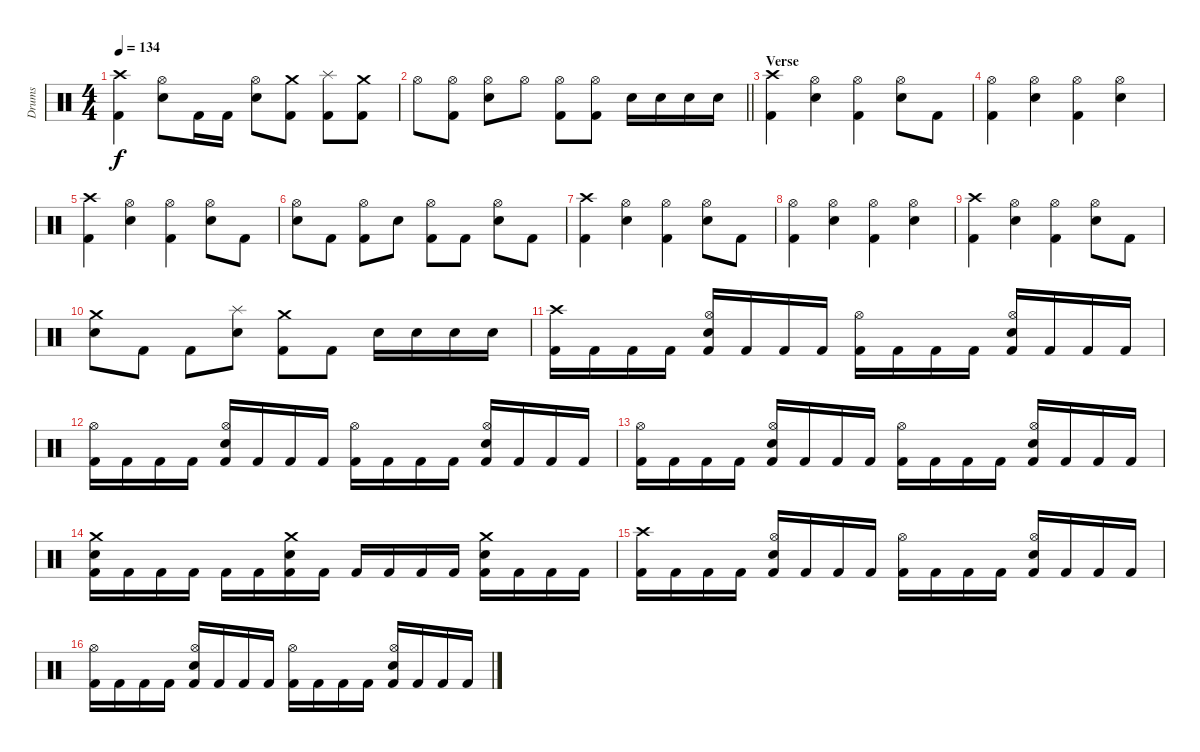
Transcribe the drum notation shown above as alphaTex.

\track ("Drums" "Drums") {instrument percussion}
\staff {score}
\articulation defaults
\ts (4 4)
\tempo 134
\clef neutral
\ks c
("Crash high (hit)" "Kick (hit) 2").4{dy f} ("Hi-Hat (open)" "Electric Snare (hit)").8 "Kick (hit) 2".16 "Kick (hit) 2".16 ("Hi-Hat (open)" "Electric Snare (hit)").8 ("Crash medium (hit)" "Kick (hit) 2").8 ("Splash (hit)" "Kick (hit) 2").8 ("Crash medium (hit)" "Kick (hit) 2").8 |
\barLineRight lightlight "Hi-Hat (open)".8
("Hi-Hat (open)" "Kick (hit) 2").8 ("Hi-Hat (open)" "Electric Snare (hit)").8 "Hi-Hat (open)".8 ("Hi-Hat (open)" "Kick (hit) 2").8 ("Hi-Hat (open)" "Kick (hit) 2").8 "Electric Snare (hit)".16 "Electric Snare (hit)".16 "Electric Snare (hit)".16 "Electric Snare (hit)".16 |
\section ("" "Verse")
("Crash high (hit)" "Kick (hit) 2").4 ("Hi-Hat (open)" "Electric Snare (hit)").4 ("Hi-Hat (open)" "Kick (hit) 2").4 ("Hi-Hat (open)" "Electric Snare (hit)").8 "Kick (hit) 2".8 |
("Hi-Hat (open)" "Kick (hit) 2").4 ("Hi-Hat (open)" "Electric Snare (hit)").4 ("Hi-Hat (open)" "Kick (hit) 2").4 ("Hi-Hat (open)" "Electric Snare (hit)").4 |
("Crash high (hit)" "Kick (hit) 2").4 ("Hi-Hat (open)" "Electric Snare (hit)").4 ("Hi-Hat (open)" "Kick (hit) 2").4 ("Hi-Hat (open)" "Electric Snare (hit)").8 "Kick (hit) 2".8 |
("Hi-Hat (open)" "Electric Snare (hit)").8 "Kick (hit) 2".8 ("Hi-Hat (open)" "Kick (hit) 2").8 "Electric Snare (hit)".8 ("Hi-Hat (open)" "Kick (hit) 2").8 "Kick (hit) 2".8 ("Hi-Hat (open)" "Electric Snare (hit)").8 "Kick (hit) 2".8 |
("Crash high (hit)" "Kick (hit) 2").4 ("Hi-Hat (open)" "Electric Snare (hit)").4 ("Hi-Hat (open)" "Kick (hit) 2").4 ("Hi-Hat (open)" "Electric Snare (hit)").8 "Kick (hit) 2".8 |
("Hi-Hat (open)" "Kick (hit) 2").4 ("Hi-Hat (open)" "Electric Snare (hit)").4 ("Hi-Hat (open)" "Kick (hit) 2").4 ("Hi-Hat (open)" "Electric Snare (hit)").4 |
("Crash high (hit)" "Kick (hit) 2").4 ("Hi-Hat (open)" "Electric Snare (hit)").4 ("Hi-Hat (open)" "Kick (hit) 2").4 ("Hi-Hat (open)" "Electric Snare (hit)").8 "Kick (hit) 2".8 |
("Crash medium (hit)" "Electric Snare (hit)").8 "Kick (hit) 2".8 "Kick (hit) 2".8 ("Splash (hit)" "Electric Snare (hit)").8 ("Crash medium (hit)" "Kick (hit) 2").8 "Kick (hit) 2".8 "Electric Snare (hit)".16 "Electric Snare (hit)".16 "Electric Snare (hit)".16 "Electric Snare (hit)".16 |
("Crash high (hit)" "Kick (hit) 2").16 "Kick (hit) 2".16 "Kick (hit) 2".16 "Kick (hit) 2".16 ("Hi-Hat (open)" "Electric Snare (hit)" "Kick (hit) 2").16 "Kick (hit) 2".16 "Kick (hit) 2".16 "Kick (hit) 2".16 ("Hi-Hat (open)" "Kick (hit) 2").16 "Kick (hit) 2".16 "Kick (hit) 2".16 "Kick (hit) 2".16 ("Hi-Hat (open)" "Electric Snare (hit)" "Kick (hit) 2").16 "Kick (hit) 2".16 "Kick (hit) 2".16 "Kick (hit) 2".16 |
("Hi-Hat (open)" "Kick (hit) 2").16 "Kick (hit) 2".16 "Kick (hit) 2".16 "Kick (hit) 2".16 ("Hi-Hat (open)" "Electric Snare (hit)" "Kick (hit) 2").16 "Kick (hit) 2".16 "Kick (hit) 2".16 "Kick (hit) 2".16 ("Hi-Hat (open)" "Kick (hit) 2").16 "Kick (hit) 2".16 "Kick (hit) 2".16 "Kick (hit) 2".16 ("Hi-Hat (open)" "Electric Snare (hit)" "Kick (hit) 2").16 "Kick (hit) 2".16 "Kick (hit) 2".16 "Kick (hit) 2".16 |
("Hi-Hat (open)" "Kick (hit) 2").16 "Kick (hit) 2".16 "Kick (hit) 2".16 "Kick (hit) 2".16 ("Hi-Hat (open)" "Electric Snare (hit)" "Kick (hit) 2").16 "Kick (hit) 2".16 "Kick (hit) 2".16 "Kick (hit) 2".16 ("Hi-Hat (open)" "Kick (hit) 2").16 "Kick (hit) 2".16 "Kick (hit) 2".16 "Kick (hit) 2".16 ("Hi-Hat (open)" "Electric Snare (hit)" "Kick (hit) 2").16 "Kick (hit) 2".16 "Kick (hit) 2".16 "Kick (hit) 2".16 |
("Crash medium (hit)" "Electric Snare (hit)" "Kick (hit) 2").16 "Kick (hit) 2".16 "Kick (hit) 2".16 "Kick (hit) 2".16 "Kick (hit) 2".16 "Kick (hit) 2".16 ("Crash medium (hit)" "Electric Snare (hit)" "Kick (hit) 2").16 "Kick (hit) 2".16 "Kick (hit) 2".16 "Kick (hit) 2".16 "Kick (hit) 2".16 "Kick (hit) 2".16 ("Crash medium (hit)" "Electric Snare (hit)" "Kick (hit) 2").16 "Kick (hit) 2".16 "Kick (hit) 2".16 "Kick (hit) 2".16 |
("Crash high (hit)" "Kick (hit) 2").16 "Kick (hit) 2".16 "Kick (hit) 2".16 "Kick (hit) 2".16 ("Hi-Hat (open)" "Electric Snare (hit)" "Kick (hit) 2").16 "Kick (hit) 2".16 "Kick (hit) 2".16 "Kick (hit) 2".16 ("Hi-Hat (open)" "Kick (hit) 2").16 "Kick (hit) 2".16 "Kick (hit) 2".16 "Kick (hit) 2".16 ("Hi-Hat (open)" "Electric Snare (hit)" "Kick (hit) 2").16 "Kick (hit) 2".16 "Kick (hit) 2".16 "Kick (hit) 2".16 |
("Hi-Hat (open)" "Kick (hit) 2").16 "Kick (hit) 2".16 "Kick (hit) 2".16 "Kick (hit) 2".16 ("Hi-Hat (open)" "Electric Snare (hit)" "Kick (hit) 2").16 "Kick (hit) 2".16 "Kick (hit) 2".16 "Kick (hit) 2".16 ("Hi-Hat (open)" "Kick (hit) 2").16 "Kick (hit) 2".16 "Kick (hit) 2".16 "Kick (hit) 2".16 ("Hi-Hat (open)" "Electric Snare (hit)" "Kick (hit) 2").16 "Kick (hit) 2".16 "Kick (hit) 2".16 "Kick (hit) 2".16
